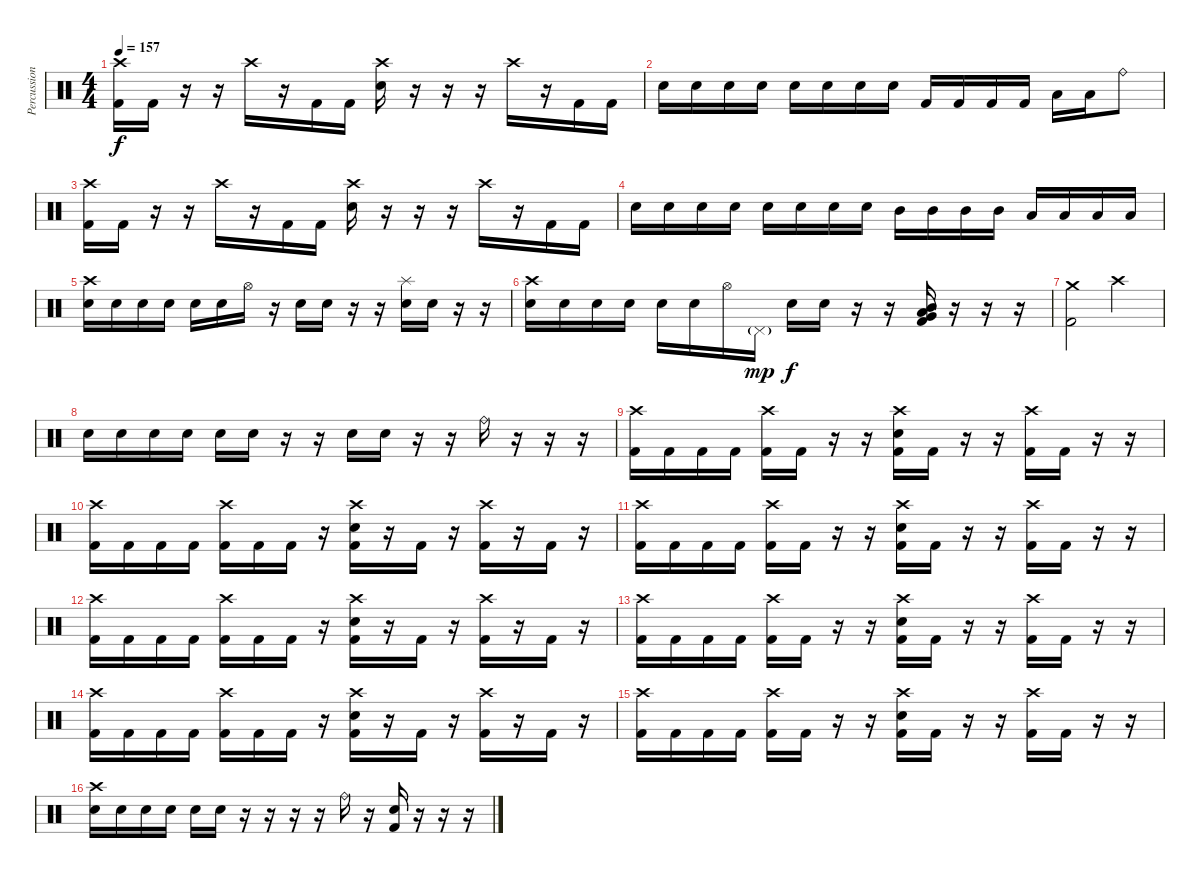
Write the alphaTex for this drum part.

\track ("Percussion" "Percussion") {instrument percussion}
\staff {score}
\articulation defaults
\ts (4 4)
\tempo 157
\clef neutral
\ks c
("Crash high (hit)" "Kick (hit) 2").16{dy f} "Kick (hit) 2".16 r.16 r.16 "Crash high (hit)".16 r.16 "Kick (hit) 2".16 "Kick (hit) 2".16 ("Crash high (hit)" "Electric Snare (hit)").16 r.16 r.16 r.16 "Crash high (hit)".16 r.16 "Kick (hit) 2".16 "Kick (hit) 2".16 |
"Electric Snare (hit)".16 "Electric Snare (hit)".16 "Electric Snare (hit)".16 "Electric Snare (hit)".16 "Electric Snare (hit)".16 "Electric Snare (hit)".16 "Electric Snare (hit)".16 "Electric Snare (hit)".16 "Kick (hit) 2".16 "Kick (hit) 2".16 "Kick (hit) 2".16 "Kick (hit) 2".16 "Low Tom (hit)".16 "Low Tom (hit)".16 "Ride (bell)".8 |
("Crash high (hit)" "Kick (hit) 2").16 "Kick (hit) 2".16 r.16 r.16 "Crash high (hit)".16 r.16 "Kick (hit) 2".16 "Kick (hit) 2".16 ("Crash high (hit)" "Electric Snare (hit)").16 r.16 r.16 r.16 "Crash high (hit)".16 r.16 "Kick (hit) 2".16 "Kick (hit) 2".16 |
"Electric Snare (hit)".16 "Electric Snare (hit)".16 "Electric Snare (hit)".16 "Electric Snare (hit)".16 "Electric Snare (hit)".16 "Electric Snare (hit)".16 "Electric Snare (hit)".16 "Electric Snare (hit)".16 "Mid Tom (hit)".16 "Mid Tom (hit)".16 "Mid Tom (hit)".16 "Mid Tom (hit)".16 "Low Tom (hit)".16 "Low Tom (hit)".16 "Low Tom (hit)".16 "Low Tom (hit)".16 |
("Crash high (hit)" "Electric Snare (hit)").16 "Electric Snare (hit)".16 "Electric Snare (hit)".16 "Electric Snare (hit)".16 "Electric Snare (hit)".16 "Electric Snare (hit)".16 "Hi-Hat (open)".16 r.16 "Electric Snare (hit)".16 "Electric Snare (hit)".16 r.16 r.16 ("Splash (hit)" "Electric Snare (hit)").16 "Electric Snare (hit)".16 r.16 r.16 |
("Crash high (hit)" "Electric Snare (hit)").16 "Electric Snare (hit)".16 "Electric Snare (hit)".16 "Electric Snare (hit)".16 "Electric Snare (hit)".16 "Electric Snare (hit)".16 "Hi-Hat (open)".16 "Pedal Hi-Hat (hit)"{g}.16{dy mp} "Electric Snare (hit)".16{dy f} "Electric Snare (hit)".16 r.16 r.16 ("Mid Tom (hit)" "Low Tom (hit)" "Very Low Tom (hit)" "Kick (hit) 2").16 r.16 r.16 r.16 |
("Crash medium (hit)" "Kick (hit) 2").2 "Crash high (hit)".2 |
"Electric Snare (hit)".16 "Electric Snare (hit)".16 "Electric Snare (hit)".16 "Electric Snare (hit)".16 "Electric Snare (hit)".16 "Electric Snare (hit)".16 r.16 r.16 "Electric Snare (hit)".16 "Electric Snare (hit)".16 r.16 r.16 "Ride (bell)".16 r.16 r.16 r.16 |
("Crash high (hit)" "Kick (hit) 2").16 "Kick (hit) 2".16 "Kick (hit) 2".16 "Kick (hit) 2".16 ("Crash high (hit)" "Kick (hit) 2").16 "Kick (hit) 2".16 r.16 r.16 ("Crash high (hit)" "Electric Snare (hit)" "Kick (hit) 2").16 "Kick (hit) 2".16 r.16 r.16 ("Crash high (hit)" "Kick (hit) 2").16 "Kick (hit) 2".16 r.16 r.16 |
("Crash high (hit)" "Kick (hit) 2").16 "Kick (hit) 2".16 "Kick (hit) 2".16 "Kick (hit) 2".16 ("Crash high (hit)" "Kick (hit) 2").16 "Kick (hit) 2".16 "Kick (hit) 2".16 r.16 ("Crash high (hit)" "Electric Snare (hit)" "Kick (hit) 2").16 r.16 "Kick (hit) 2".16 r.16 ("Crash high (hit)" "Kick (hit) 2").16 r.16 "Kick (hit) 2".16 r.16 |
("Crash high (hit)" "Kick (hit) 2").16 "Kick (hit) 2".16 "Kick (hit) 2".16 "Kick (hit) 2".16 ("Crash high (hit)" "Kick (hit) 2").16 "Kick (hit) 2".16 r.16 r.16 ("Crash high (hit)" "Electric Snare (hit)" "Kick (hit) 2").16 "Kick (hit) 2".16 r.16 r.16 ("Crash high (hit)" "Kick (hit) 2").16 "Kick (hit) 2".16 r.16 r.16 |
("Crash high (hit)" "Kick (hit) 2").16 "Kick (hit) 2".16 "Kick (hit) 2".16 "Kick (hit) 2".16 ("Crash high (hit)" "Kick (hit) 2").16 "Kick (hit) 2".16 "Kick (hit) 2".16 r.16 ("Crash high (hit)" "Electric Snare (hit)" "Kick (hit) 2").16 r.16 "Kick (hit) 2".16 r.16 ("Crash high (hit)" "Kick (hit) 2").16 r.16 "Kick (hit) 2".16 r.16 |
("Crash high (hit)" "Kick (hit) 2").16 "Kick (hit) 2".16 "Kick (hit) 2".16 "Kick (hit) 2".16 ("Crash high (hit)" "Kick (hit) 2").16 "Kick (hit) 2".16 r.16 r.16 ("Crash high (hit)" "Electric Snare (hit)" "Kick (hit) 2").16 "Kick (hit) 2".16 r.16 r.16 ("Crash high (hit)" "Kick (hit) 2").16 "Kick (hit) 2".16 r.16 r.16 |
("Crash high (hit)" "Kick (hit) 2").16 "Kick (hit) 2".16 "Kick (hit) 2".16 "Kick (hit) 2".16 ("Crash high (hit)" "Kick (hit) 2").16 "Kick (hit) 2".16 "Kick (hit) 2".16 r.16 ("Crash high (hit)" "Electric Snare (hit)" "Kick (hit) 2").16 r.16 "Kick (hit) 2".16 r.16 ("Crash high (hit)" "Kick (hit) 2").16 r.16 "Kick (hit) 2".16 r.16 |
("Crash high (hit)" "Kick (hit) 2").16 "Kick (hit) 2".16 "Kick (hit) 2".16 "Kick (hit) 2".16 ("Crash high (hit)" "Kick (hit) 2").16 "Kick (hit) 2".16 r.16 r.16 ("Crash high (hit)" "Electric Snare (hit)" "Kick (hit) 2").16 "Kick (hit) 2".16 r.16 r.16 ("Crash high (hit)" "Kick (hit) 2").16 "Kick (hit) 2".16 r.16 r.16 |
("Crash high (hit)" "Electric Snare (hit)").16 "Electric Snare (hit)".16 "Electric Snare (hit)".16 "Electric Snare (hit)".16 "Electric Snare (hit)".16 "Electric Snare (hit)".16 r.16 r.16 r.16 r.16 "Ride (bell)".16 r.16 ("Electric Snare (hit)" "Kick (hit) 2").16 r.16 r.16 r.16
